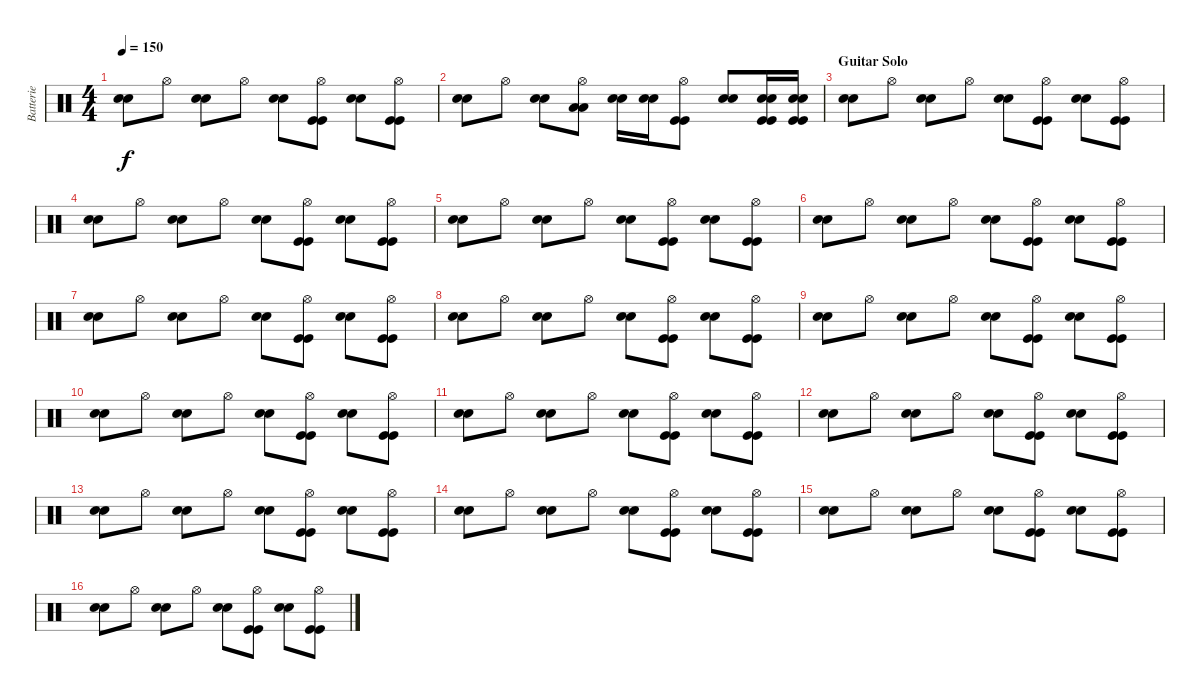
\track ("Batterie" "Batterie") {instrument percussion}
\staff {score}
\articulation defaults
\ts (4 4)
\tempo 150
\clef neutral
\ks c
("Electric Snare (hit)" "Electric Snare (hit)").8{dy f} "Hi-Hat (open)".8 ("Electric Snare (hit)" "Electric Snare (hit)").8 "Hi-Hat (open)".8 ("Electric Snare (hit)" "Electric Snare (hit)").8 ("Hi-Hat (open)" "Kick (hit)" "Kick (hit)").8 ("Electric Snare (hit)" "Electric Snare (hit)").8 ("Hi-Hat (open)" "Kick (hit)" "Kick (hit)").8 |
("Electric Snare (hit)" "Electric Snare (hit)").8 "Hi-Hat (open)".8 ("Electric Snare (hit)" "Electric Snare (hit)").8 ("Hi-Hat (open)" "Low Floor Tom (hit)" "Low Floor Tom (hit)").8 ("Electric Snare (hit)" "Electric Snare (hit)").16 ("Electric Snare (hit)" "Electric Snare (hit)").16 ("Hi-Hat (open)" "Kick (hit)" "Kick (hit)").8 ("Electric Snare (hit)" "Electric Snare (hit)").8 ("Electric Snare (hit)" "Electric Snare (hit)" "Kick (hit)" "Kick (hit)").16 ("Electric Snare (hit)" "Electric Snare (hit)" "Kick (hit)" "Kick (hit)").16 |
\section ("" "Guitar Solo")
("Electric Snare (hit)" "Electric Snare (hit)").8 "Hi-Hat (open)".8 ("Electric Snare (hit)" "Electric Snare (hit)").8 "Hi-Hat (open)".8 ("Electric Snare (hit)" "Electric Snare (hit)").8 ("Hi-Hat (open)" "Kick (hit)" "Kick (hit)").8 ("Electric Snare (hit)" "Electric Snare (hit)").8 ("Hi-Hat (open)" "Kick (hit)" "Kick (hit)").8 |
("Electric Snare (hit)" "Electric Snare (hit)").8 "Hi-Hat (open)".8 ("Electric Snare (hit)" "Electric Snare (hit)").8 "Hi-Hat (open)".8 ("Electric Snare (hit)" "Electric Snare (hit)").8 ("Hi-Hat (open)" "Kick (hit)" "Kick (hit)").8 ("Electric Snare (hit)" "Electric Snare (hit)").8 ("Hi-Hat (open)" "Kick (hit)" "Kick (hit)").8 |
("Electric Snare (hit)" "Electric Snare (hit)").8 "Hi-Hat (open)".8 ("Electric Snare (hit)" "Electric Snare (hit)").8 "Hi-Hat (open)".8 ("Electric Snare (hit)" "Electric Snare (hit)").8 ("Hi-Hat (open)" "Kick (hit)" "Kick (hit)").8 ("Electric Snare (hit)" "Electric Snare (hit)").8 ("Hi-Hat (open)" "Kick (hit)" "Kick (hit)").8 |
("Electric Snare (hit)" "Electric Snare (hit)").8 "Hi-Hat (open)".8 ("Electric Snare (hit)" "Electric Snare (hit)").8 "Hi-Hat (open)".8 ("Electric Snare (hit)" "Electric Snare (hit)").8 ("Hi-Hat (open)" "Kick (hit)" "Kick (hit)").8 ("Electric Snare (hit)" "Electric Snare (hit)").8 ("Hi-Hat (open)" "Kick (hit)" "Kick (hit)").8 |
("Electric Snare (hit)" "Electric Snare (hit)").8 "Hi-Hat (open)".8 ("Electric Snare (hit)" "Electric Snare (hit)").8 "Hi-Hat (open)".8 ("Electric Snare (hit)" "Electric Snare (hit)").8 ("Hi-Hat (open)" "Kick (hit)" "Kick (hit)").8 ("Electric Snare (hit)" "Electric Snare (hit)").8 ("Hi-Hat (open)" "Kick (hit)" "Kick (hit)").8 |
("Electric Snare (hit)" "Electric Snare (hit)").8 "Hi-Hat (open)".8 ("Electric Snare (hit)" "Electric Snare (hit)").8 "Hi-Hat (open)".8 ("Electric Snare (hit)" "Electric Snare (hit)").8 ("Hi-Hat (open)" "Kick (hit)" "Kick (hit)").8 ("Electric Snare (hit)" "Electric Snare (hit)").8 ("Hi-Hat (open)" "Kick (hit)" "Kick (hit)").8 |
("Electric Snare (hit)" "Electric Snare (hit)").8 "Hi-Hat (open)".8 ("Electric Snare (hit)" "Electric Snare (hit)").8 "Hi-Hat (open)".8 ("Electric Snare (hit)" "Electric Snare (hit)").8 ("Hi-Hat (open)" "Kick (hit)" "Kick (hit)").8 ("Electric Snare (hit)" "Electric Snare (hit)").8 ("Hi-Hat (open)" "Kick (hit)" "Kick (hit)").8 |
("Electric Snare (hit)" "Electric Snare (hit)").8 "Hi-Hat (open)".8 ("Electric Snare (hit)" "Electric Snare (hit)").8 "Hi-Hat (open)".8 ("Electric Snare (hit)" "Electric Snare (hit)").8 ("Hi-Hat (open)" "Kick (hit)" "Kick (hit)").8 ("Electric Snare (hit)" "Electric Snare (hit)").8 ("Hi-Hat (open)" "Kick (hit)" "Kick (hit)").8 |
("Electric Snare (hit)" "Electric Snare (hit)").8 "Hi-Hat (open)".8 ("Electric Snare (hit)" "Electric Snare (hit)").8 "Hi-Hat (open)".8 ("Electric Snare (hit)" "Electric Snare (hit)").8 ("Hi-Hat (open)" "Kick (hit)" "Kick (hit)").8 ("Electric Snare (hit)" "Electric Snare (hit)").8 ("Hi-Hat (open)" "Kick (hit)" "Kick (hit)").8 |
("Electric Snare (hit)" "Electric Snare (hit)").8 "Hi-Hat (open)".8 ("Electric Snare (hit)" "Electric Snare (hit)").8 "Hi-Hat (open)".8 ("Electric Snare (hit)" "Electric Snare (hit)").8 ("Hi-Hat (open)" "Kick (hit)" "Kick (hit)").8 ("Electric Snare (hit)" "Electric Snare (hit)").8 ("Hi-Hat (open)" "Kick (hit)" "Kick (hit)").8 |
("Electric Snare (hit)" "Electric Snare (hit)").8 "Hi-Hat (open)".8 ("Electric Snare (hit)" "Electric Snare (hit)").8 "Hi-Hat (open)".8 ("Electric Snare (hit)" "Electric Snare (hit)").8 ("Hi-Hat (open)" "Kick (hit)" "Kick (hit)").8 ("Electric Snare (hit)" "Electric Snare (hit)").8 ("Hi-Hat (open)" "Kick (hit)" "Kick (hit)").8 |
("Electric Snare (hit)" "Electric Snare (hit)").8 "Hi-Hat (open)".8 ("Electric Snare (hit)" "Electric Snare (hit)").8 "Hi-Hat (open)".8 ("Electric Snare (hit)" "Electric Snare (hit)").8 ("Hi-Hat (open)" "Kick (hit)" "Kick (hit)").8 ("Electric Snare (hit)" "Electric Snare (hit)").8 ("Hi-Hat (open)" "Kick (hit)" "Kick (hit)").8 |
("Electric Snare (hit)" "Electric Snare (hit)").8 "Hi-Hat (open)".8 ("Electric Snare (hit)" "Electric Snare (hit)").8 "Hi-Hat (open)".8 ("Electric Snare (hit)" "Electric Snare (hit)").8 ("Hi-Hat (open)" "Kick (hit)" "Kick (hit)").8 ("Electric Snare (hit)" "Electric Snare (hit)").8 ("Hi-Hat (open)" "Kick (hit)" "Kick (hit)").8 |
("Electric Snare (hit)" "Electric Snare (hit)").8 "Hi-Hat (open)".8 ("Electric Snare (hit)" "Electric Snare (hit)").8 "Hi-Hat (open)".8 ("Electric Snare (hit)" "Electric Snare (hit)").8 ("Hi-Hat (open)" "Kick (hit)" "Kick (hit)").8 ("Electric Snare (hit)" "Electric Snare (hit)").8 ("Hi-Hat (open)" "Kick (hit)" "Kick (hit)").8
